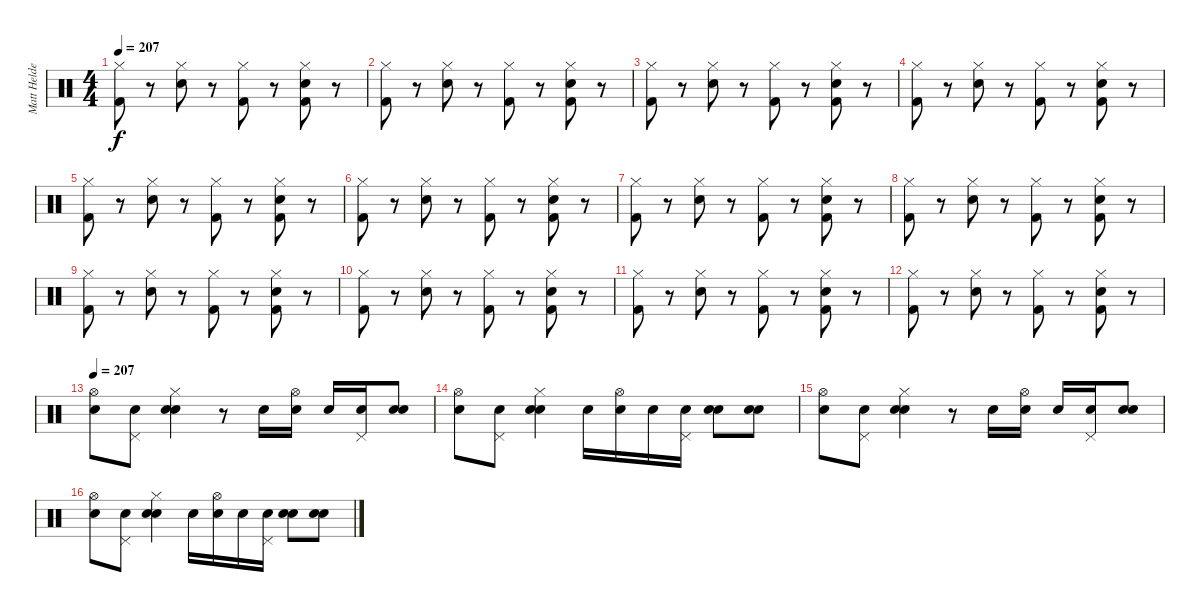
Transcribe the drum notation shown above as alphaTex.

\track ("Matt Helders - Drums" "Matt Helde") {instrument percussion}
\staff {score}
\articulation defaults
\ts (4 4)
\tempo 207
\clef neutral
\ks c
("Hi-Hat (closed)" "Kick (hit) 2").8{dy f} r.8 ("Hi-Hat (closed)" "Electric Snare (hit)").8 r.8 ("Hi-Hat (closed)" "Kick (hit) 2").8 r.8 ("Hi-Hat (closed)" "Electric Snare (hit)" "Kick (hit) 2").8 r.8 |
("Hi-Hat (closed)" "Kick (hit) 2").8 r.8 ("Hi-Hat (closed)" "Electric Snare (hit)").8 r.8 ("Hi-Hat (closed)" "Kick (hit) 2").8 r.8 ("Hi-Hat (closed)" "Electric Snare (hit)" "Kick (hit) 2").8 r.8 |
("Hi-Hat (closed)" "Kick (hit) 2").8 r.8 ("Hi-Hat (closed)" "Electric Snare (hit)").8 r.8 ("Hi-Hat (closed)" "Kick (hit) 2").8 r.8 ("Hi-Hat (closed)" "Electric Snare (hit)" "Kick (hit) 2").8 r.8 |
("Hi-Hat (closed)" "Kick (hit) 2").8 r.8 ("Hi-Hat (closed)" "Electric Snare (hit)").8 r.8 ("Hi-Hat (closed)" "Kick (hit) 2").8 r.8 ("Hi-Hat (closed)" "Electric Snare (hit)" "Kick (hit) 2").8 r.8 |
("Hi-Hat (closed)" "Kick (hit) 2").8 r.8 ("Hi-Hat (closed)" "Electric Snare (hit)").8 r.8 ("Hi-Hat (closed)" "Kick (hit) 2").8 r.8 ("Hi-Hat (closed)" "Electric Snare (hit)" "Kick (hit) 2").8 r.8 |
("Hi-Hat (closed)" "Kick (hit) 2").8 r.8 ("Hi-Hat (closed)" "Electric Snare (hit)").8 r.8 ("Hi-Hat (closed)" "Kick (hit) 2").8 r.8 ("Hi-Hat (closed)" "Electric Snare (hit)" "Kick (hit) 2").8 r.8 |
("Hi-Hat (closed)" "Kick (hit) 2").8 r.8 ("Hi-Hat (closed)" "Electric Snare (hit)").8 r.8 ("Hi-Hat (closed)" "Kick (hit) 2").8 r.8 ("Hi-Hat (closed)" "Electric Snare (hit)" "Kick (hit) 2").8 r.8 |
("Hi-Hat (closed)" "Kick (hit) 2").8 r.8 ("Hi-Hat (closed)" "Electric Snare (hit)").8 r.8 ("Hi-Hat (closed)" "Kick (hit) 2").8 r.8 ("Hi-Hat (closed)" "Electric Snare (hit)" "Kick (hit) 2").8 r.8 |
("Hi-Hat (closed)" "Kick (hit) 2").8 r.8 ("Hi-Hat (closed)" "Electric Snare (hit)").8 r.8 ("Hi-Hat (closed)" "Kick (hit) 2").8 r.8 ("Hi-Hat (closed)" "Electric Snare (hit)" "Kick (hit) 2").8 r.8 |
("Hi-Hat (closed)" "Kick (hit) 2").8 r.8 ("Hi-Hat (closed)" "Electric Snare (hit)").8 r.8 ("Hi-Hat (closed)" "Kick (hit) 2").8 r.8 ("Hi-Hat (closed)" "Electric Snare (hit)" "Kick (hit) 2").8 r.8 |
("Hi-Hat (closed)" "Kick (hit) 2").8 r.8 ("Hi-Hat (closed)" "Electric Snare (hit)").8 r.8 ("Hi-Hat (closed)" "Kick (hit) 2").8 r.8 ("Hi-Hat (closed)" "Electric Snare (hit)" "Kick (hit) 2").8 r.8 |
("Hi-Hat (closed)" "Kick (hit) 2").8 r.8 ("Hi-Hat (closed)" "Electric Snare (hit)").8 r.8 ("Hi-Hat (closed)" "Kick (hit) 2").8 r.8 ("Hi-Hat (closed)" "Electric Snare (hit)" "Kick (hit) 2").8 r.8 |
\tempo 207
("Hi-Hat (open)" "Electric Snare (hit)").8 ("Pedal Hi-Hat (hit)" "Electric Snare (hit)").8 ("Hi-Hat (closed)" "Electric Snare (hit)" "Electric Snare (hit)").4 r.8 "Electric Snare (hit)".16 ("Hi-Hat (open)" "Electric Snare (hit)").16 "Electric Snare (hit)".16 ("Pedal Hi-Hat (hit)" "Electric Snare (hit)").16 ("Electric Snare (hit)" "Electric Snare (hit)").8 |
("Hi-Hat (open)" "Electric Snare (hit)").8 ("Pedal Hi-Hat (hit)" "Electric Snare (hit)").8 ("Hi-Hat (closed)" "Electric Snare (hit)" "Electric Snare (hit)").4 "Electric Snare (hit)".16 ("Hi-Hat (open)" "Electric Snare (hit)").16 "Electric Snare (hit)".16 ("Pedal Hi-Hat (hit)" "Electric Snare (hit)").16 ("Electric Snare (hit)" "Electric Snare (hit)").8 ("Electric Snare (hit)" "Electric Snare (hit)").8 |
("Hi-Hat (open)" "Electric Snare (hit)").8 ("Pedal Hi-Hat (hit)" "Electric Snare (hit)").8 ("Hi-Hat (closed)" "Electric Snare (hit)" "Electric Snare (hit)").4 r.8 "Electric Snare (hit)".16 ("Hi-Hat (open)" "Electric Snare (hit)").16 "Electric Snare (hit)".16 ("Pedal Hi-Hat (hit)" "Electric Snare (hit)").16 ("Electric Snare (hit)" "Electric Snare (hit)").8 |
("Hi-Hat (open)" "Electric Snare (hit)").8 ("Pedal Hi-Hat (hit)" "Electric Snare (hit)").8 ("Hi-Hat (closed)" "Electric Snare (hit)" "Electric Snare (hit)").4 "Electric Snare (hit)".16 ("Hi-Hat (open)" "Electric Snare (hit)").16 "Electric Snare (hit)".16 ("Pedal Hi-Hat (hit)" "Electric Snare (hit)").16 ("Electric Snare (hit)" "Electric Snare (hit)").8 ("Electric Snare (hit)" "Electric Snare (hit)").8
